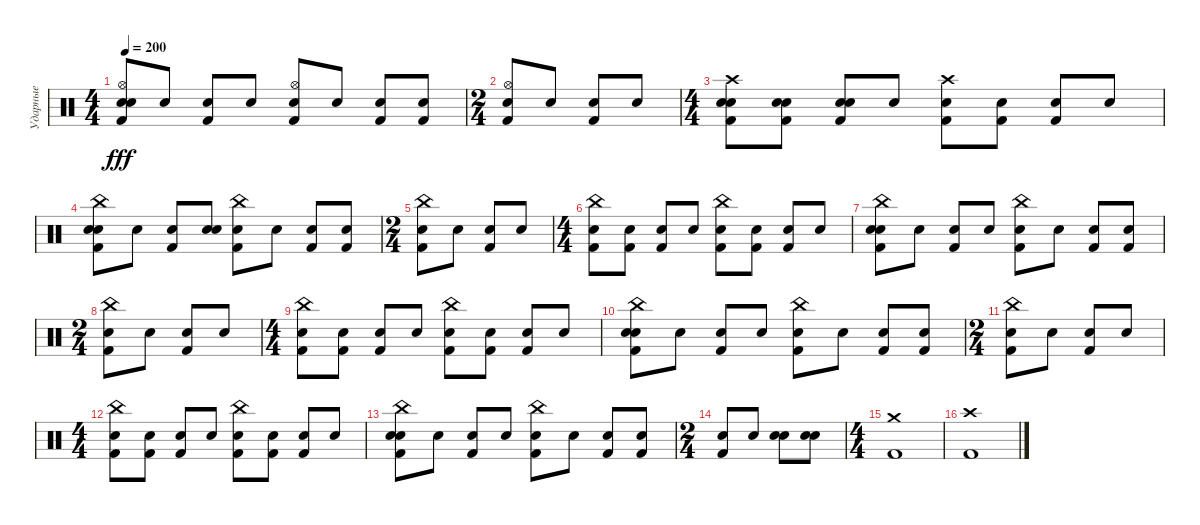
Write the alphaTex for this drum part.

\track ("Ударные" "Ударные") {instrument percussion}
\staff {score}
\articulation defaults
\ts (4 4)
\tempo 200
\clef neutral
\ks c
("Snare (hit)" "Hi-Hat (open)" "Electric Snare (hit)" "Kick (hit) 2").8{dy fff} "Snare (hit)".8 ("Snare (hit)" "Kick (hit) 2").8 "Snare (hit)".8 ("Snare (hit)" "Hi-Hat (open)" "Kick (hit) 2").8 "Snare (hit)".8 ("Snare (hit)" "Kick (hit) 2").8 ("Snare (hit)" "Kick (hit) 2").8 |
\ts (2 4)
("Snare (hit)" "Hi-Hat (open)" "Kick (hit) 2").8 "Snare (hit)".8 ("Snare (hit)" "Kick (hit) 2").8 "Snare (hit)".8 |
\ts (4 4)
("Snare (hit)" "Crash high (hit)" "Electric Snare (hit)" "Kick (hit) 2").8 ("Snare (hit)" "Electric Snare (hit)" "Kick (hit) 2").8 ("Snare (hit)" "Electric Snare (hit)" "Kick (hit) 2").8 "Snare (hit)".8 ("Snare (hit)" "Crash high (hit)" "Kick (hit) 2").8 ("Snare (hit)" "Kick (hit) 2").8 ("Snare (hit)" "Kick (hit) 2").8 "Snare (hit)".8 |
("Snare (hit)" "China (hit)" "Electric Snare (hit)" "Kick (hit) 2").8 "Snare (hit)".8 ("Snare (hit)" "Kick (hit) 2").8 ("Snare (hit)" "Snare (hit)").8 ("Snare (hit)" "China (hit)" "Kick (hit) 2").8 "Snare (hit)".8 ("Snare (hit)" "Kick (hit) 2").8 ("Snare (hit)" "Kick (hit) 2").8 |
\ts (2 4)
("Snare (hit)" "China (hit)" "Kick (hit) 2").8 "Snare (hit)".8 ("Snare (hit)" "Kick (hit) 2").8 "Snare (hit)".8 |
\ts (4 4)
("Snare (hit)" "China (hit)" "Kick (hit) 2").8 ("Snare (hit)" "Kick (hit) 2").8 ("Snare (hit)" "Kick (hit) 2").8 "Snare (hit)".8 ("Snare (hit)" "China (hit)" "Kick (hit) 2").8 ("Snare (hit)" "Kick (hit) 2").8 ("Snare (hit)" "Kick (hit) 2").8 "Snare (hit)".8 |
("Snare (hit)" "China (hit)" "Electric Snare (hit)" "Kick (hit) 2").8 "Snare (hit)".8 ("Snare (hit)" "Kick (hit) 2").8 "Snare (hit)".8 ("Snare (hit)" "China (hit)" "Kick (hit) 2").8 "Snare (hit)".8 ("Snare (hit)" "Kick (hit) 2").8 ("Snare (hit)" "Kick (hit) 2").8 |
\ts (2 4)
("Snare (hit)" "China (hit)" "Kick (hit) 2").8 "Snare (hit)".8 ("Snare (hit)" "Kick (hit) 2").8 "Snare (hit)".8 |
\ts (4 4)
("Snare (hit)" "China (hit)" "Kick (hit) 2").8 ("Snare (hit)" "Kick (hit) 2").8 ("Snare (hit)" "Kick (hit) 2").8 "Snare (hit)".8 ("Snare (hit)" "China (hit)" "Kick (hit) 2").8 ("Snare (hit)" "Kick (hit) 2").8 ("Snare (hit)" "Kick (hit) 2").8 "Snare (hit)".8 |
("Snare (hit)" "China (hit)" "Electric Snare (hit)" "Kick (hit) 2").8 "Snare (hit)".8 ("Snare (hit)" "Kick (hit) 2").8 "Snare (hit)".8 ("Snare (hit)" "China (hit)" "Kick (hit) 2").8 "Snare (hit)".8 ("Snare (hit)" "Kick (hit) 2").8 ("Snare (hit)" "Kick (hit) 2").8 |
\ts (2 4)
("Snare (hit)" "China (hit)" "Kick (hit) 2").8 "Snare (hit)".8 ("Snare (hit)" "Kick (hit) 2").8 "Snare (hit)".8 |
\ts (4 4)
("Snare (hit)" "China (hit)" "Kick (hit) 2").8 ("Snare (hit)" "Kick (hit) 2").8 ("Snare (hit)" "Kick (hit) 2").8 "Snare (hit)".8 ("Snare (hit)" "China (hit)" "Kick (hit) 2").8 ("Snare (hit)" "Kick (hit) 2").8 ("Snare (hit)" "Kick (hit) 2").8 "Snare (hit)".8 |
("Snare (hit)" "China (hit)" "Electric Snare (hit)" "Kick (hit) 2").8 "Snare (hit)".8 ("Snare (hit)" "Kick (hit) 2").8 "Snare (hit)".8 ("Snare (hit)" "China (hit)" "Kick (hit) 2").8 "Snare (hit)".8 ("Snare (hit)" "Kick (hit) 2").8 ("Snare (hit)" "Kick (hit) 2").8 |
\ts (2 4)
("Snare (hit)" "Kick (hit) 2").8 "Snare (hit)".8 ("Snare (hit)" "Electric Snare (hit)").8 ("Snare (hit)" "Electric Snare (hit)").8 |
\ts (4 4)
("Crash medium (hit)" "Kick (hit) 2").1 |
("Crash high (hit)" "Kick (hit) 2").1
